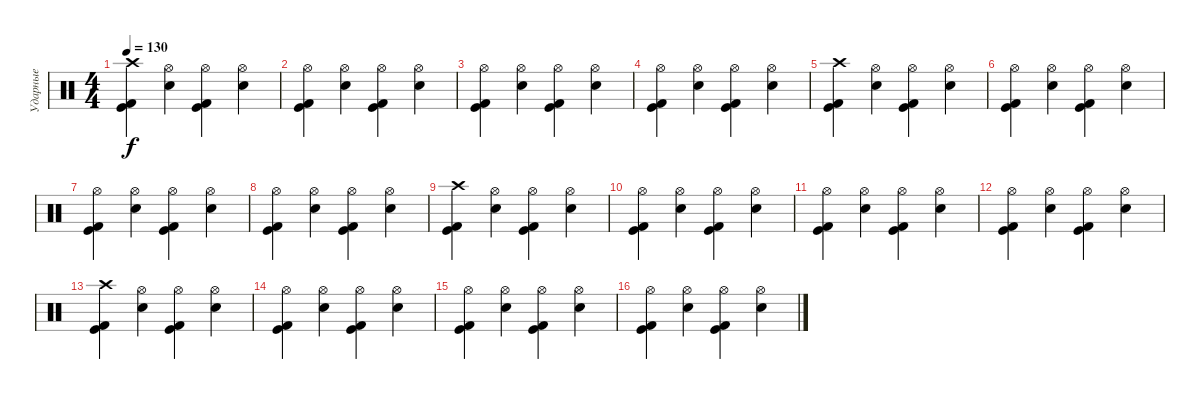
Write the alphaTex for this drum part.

\track ("Ударные" "Ударные") {instrument percussion}
\staff {score}
\articulation defaults
\ts (4 4)
\tempo 130
\clef neutral
\ks c
("Crash high (hit)" "Kick (hit) 2" "Kick (hit)").4{dy f} ("Hi-Hat (open)" "Electric Snare (hit)").4 ("Hi-Hat (open)" "Kick (hit) 2" "Kick (hit)").4 ("Hi-Hat (open)" "Electric Snare (hit)").4 |
("Hi-Hat (open)" "Kick (hit) 2" "Kick (hit)").4 ("Hi-Hat (open)" "Electric Snare (hit)").4 ("Hi-Hat (open)" "Kick (hit) 2" "Kick (hit)").4 ("Hi-Hat (open)" "Electric Snare (hit)").4 |
("Hi-Hat (open)" "Kick (hit) 2" "Kick (hit)").4 ("Hi-Hat (open)" "Electric Snare (hit)").4 ("Hi-Hat (open)" "Kick (hit) 2" "Kick (hit)").4 ("Hi-Hat (open)" "Electric Snare (hit)").4 |
("Hi-Hat (open)" "Kick (hit) 2" "Kick (hit)").4 ("Hi-Hat (open)" "Electric Snare (hit)").4 ("Hi-Hat (open)" "Kick (hit) 2" "Kick (hit)").4 ("Hi-Hat (open)" "Electric Snare (hit)").4 |
("Crash high (hit)" "Kick (hit) 2" "Kick (hit)").4 ("Hi-Hat (open)" "Electric Snare (hit)").4 ("Hi-Hat (open)" "Kick (hit) 2" "Kick (hit)").4 ("Hi-Hat (open)" "Electric Snare (hit)").4 |
("Hi-Hat (open)" "Kick (hit) 2" "Kick (hit)").4 ("Hi-Hat (open)" "Electric Snare (hit)").4 ("Hi-Hat (open)" "Kick (hit) 2" "Kick (hit)").4 ("Hi-Hat (open)" "Electric Snare (hit)").4 |
("Hi-Hat (open)" "Kick (hit) 2" "Kick (hit)").4 ("Hi-Hat (open)" "Electric Snare (hit)").4 ("Hi-Hat (open)" "Kick (hit) 2" "Kick (hit)").4 ("Hi-Hat (open)" "Electric Snare (hit)").4 |
("Hi-Hat (open)" "Kick (hit) 2" "Kick (hit)").4 ("Hi-Hat (open)" "Electric Snare (hit)").4 ("Hi-Hat (open)" "Kick (hit) 2" "Kick (hit)").4 ("Hi-Hat (open)" "Electric Snare (hit)").4 |
("Crash high (hit)" "Kick (hit) 2" "Kick (hit)").4 ("Hi-Hat (open)" "Electric Snare (hit)").4 ("Hi-Hat (open)" "Kick (hit) 2" "Kick (hit)").4 ("Hi-Hat (open)" "Electric Snare (hit)").4 |
("Hi-Hat (open)" "Kick (hit) 2" "Kick (hit)").4 ("Hi-Hat (open)" "Electric Snare (hit)").4 ("Hi-Hat (open)" "Kick (hit) 2" "Kick (hit)").4 ("Hi-Hat (open)" "Electric Snare (hit)").4 |
("Hi-Hat (open)" "Kick (hit) 2" "Kick (hit)").4 ("Hi-Hat (open)" "Electric Snare (hit)").4 ("Hi-Hat (open)" "Kick (hit) 2" "Kick (hit)").4 ("Hi-Hat (open)" "Electric Snare (hit)").4 |
("Hi-Hat (open)" "Kick (hit) 2" "Kick (hit)").4 ("Hi-Hat (open)" "Electric Snare (hit)").4 ("Hi-Hat (open)" "Kick (hit) 2" "Kick (hit)").4 ("Hi-Hat (open)" "Electric Snare (hit)").4 |
("Crash high (hit)" "Kick (hit) 2" "Kick (hit)").4 ("Hi-Hat (open)" "Electric Snare (hit)").4 ("Hi-Hat (open)" "Kick (hit) 2" "Kick (hit)").4 ("Hi-Hat (open)" "Electric Snare (hit)").4 |
("Hi-Hat (open)" "Kick (hit) 2" "Kick (hit)").4 ("Hi-Hat (open)" "Electric Snare (hit)").4 ("Hi-Hat (open)" "Kick (hit) 2" "Kick (hit)").4 ("Hi-Hat (open)" "Electric Snare (hit)").4 |
("Hi-Hat (open)" "Kick (hit) 2" "Kick (hit)").4 ("Hi-Hat (open)" "Electric Snare (hit)").4 ("Hi-Hat (open)" "Kick (hit) 2" "Kick (hit)").4 ("Hi-Hat (open)" "Electric Snare (hit)").4 |
("Hi-Hat (open)" "Kick (hit) 2" "Kick (hit)").4 ("Hi-Hat (open)" "Electric Snare (hit)").4 ("Hi-Hat (open)" "Kick (hit) 2" "Kick (hit)").4 ("Hi-Hat (open)" "Electric Snare (hit)").4
